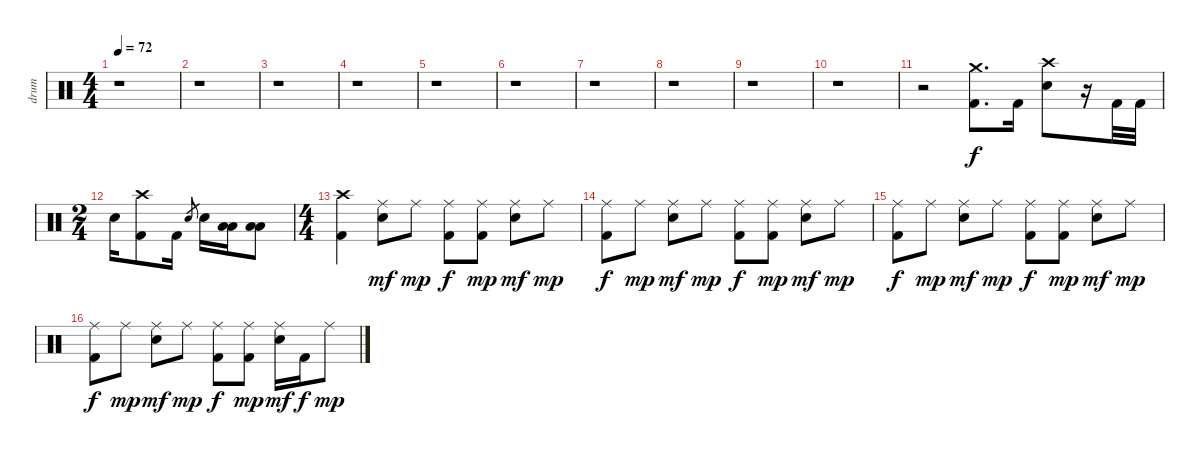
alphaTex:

\track ("drum" "drum") {instrument percussion}
\staff {score}
\articulation defaults
\ts (4 4)
\tempo 72
\clef neutral
\ks c
r.1{dy f} |
r.1 |
r.1 |
r.1 |
r.1 |
r.1 |
r.1 |
r.1 |
r.1 |
r.1 |
r.2 ("Crash medium (hit)" "Kick (hit) 2").8{d} "Kick (hit) 2".16 ("Crash high (hit)" "Electric Snare (hit)").8 r.16 "Kick (hit) 2".32 "Kick (hit) 2".32 |
\ts (2 4)
"Electric Snare (hit)".16 ("Crash high (hit)" "Kick (hit) 2").8 "Kick (hit) 2".16 "Electric Snare (hit)".8{gr} "Electric Snare (hit)".16 ("Low Tom (hit)" "Low Floor Tom (hit)").16 ("Low Tom (hit)" "Low Floor Tom (hit)").8 |
\ts (4 4)
("Crash high (hit)" "Kick (hit) 2").4 ("Ride (middle)" "Electric Snare (hit)").8{dy mf} "Ride (middle)".8{dy mp} ("Ride (middle)" "Kick (hit) 2").8{dy f} ("Ride (middle)" "Kick (hit) 2").8{dy mp} ("Ride (middle)" "Electric Snare (hit)").8{dy mf} "Ride (middle)".8{dy mp} |
("Ride (middle)" "Kick (hit) 2").8{dy f} "Ride (middle)".8{dy mp} ("Ride (middle)" "Electric Snare (hit)").8{dy mf} "Ride (middle)".8{dy mp} ("Ride (middle)" "Kick (hit) 2").8{dy f} ("Ride (middle)" "Kick (hit) 2").8{dy mp} ("Ride (middle)" "Electric Snare (hit)").8{dy mf} "Ride (middle)".8{dy mp} |
("Ride (middle)" "Kick (hit) 2").8{dy f} "Ride (middle)".8{dy mp} ("Ride (middle)" "Electric Snare (hit)").8{dy mf} "Ride (middle)".8{dy mp} ("Ride (middle)" "Kick (hit) 2").8{dy f} ("Ride (middle)" "Kick (hit) 2").8{dy mp} ("Ride (middle)" "Electric Snare (hit)").8{dy mf} "Ride (middle)".8{dy mp} |
("Ride (middle)" "Kick (hit) 2").8{dy f} "Ride (middle)".8{dy mp} ("Ride (middle)" "Electric Snare (hit)").8{dy mf} "Ride (middle)".8{dy mp} ("Ride (middle)" "Kick (hit) 2").8{dy f} ("Ride (middle)" "Kick (hit) 2").8{dy mp} ("Ride (middle)" "Electric Snare (hit)").16{dy mf} "Kick (hit) 2".16{dy f} "Ride (middle)".8{dy mp}
